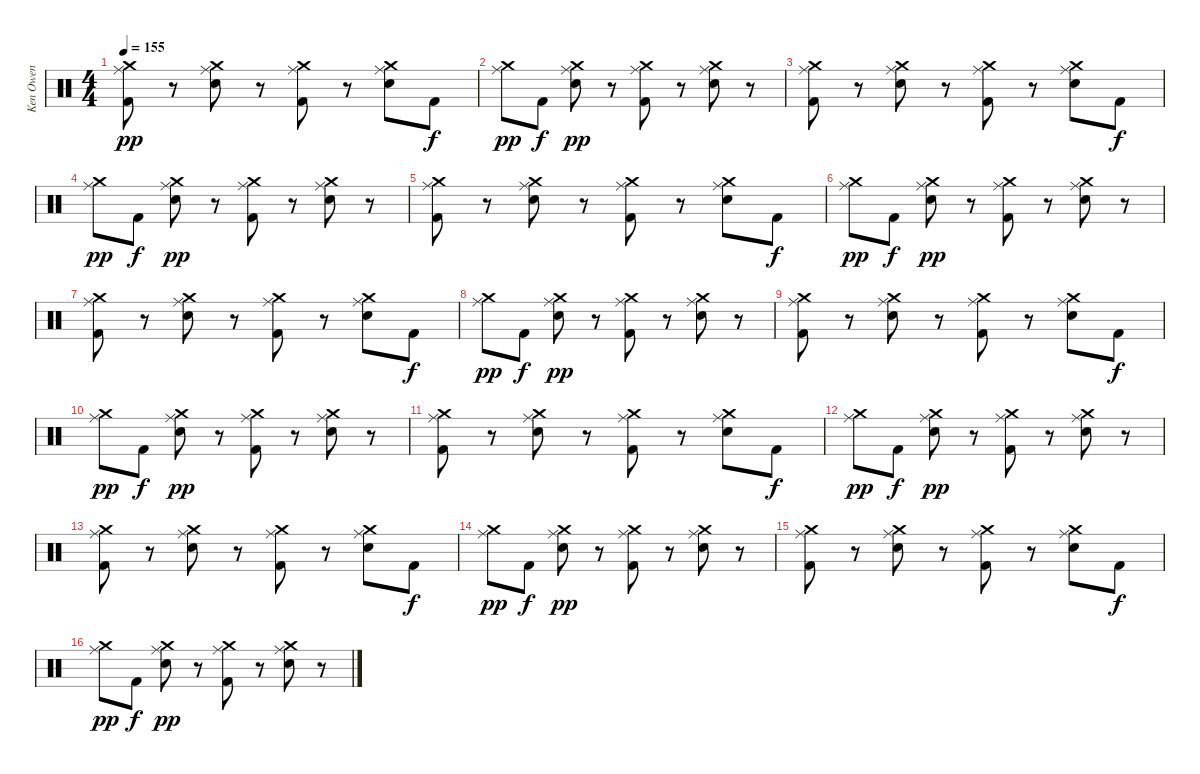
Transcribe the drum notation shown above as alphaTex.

\track ("Ken Owen" "Ken Owen") {instrument percussion}
\staff {score}
\articulation defaults
\ts (4 4)
\tempo 155
\clef neutral
\ks c
("Crash medium (hit)" "Ride (middle)" "Kick (hit) 2").8{dy pp} r.8 ("Crash medium (hit)" "Ride (middle)" "Electric Snare (hit)").8 r.8 ("Crash medium (hit)" "Ride (middle)" "Kick (hit) 2").8 r.8 ("Crash medium (hit)" "Ride (middle)" "Electric Snare (hit)").8 "Kick (hit) 2".8{dy f} |
("Crash medium (hit)" "Ride (middle)").8{dy pp} "Kick (hit) 2".8{dy f} ("Crash medium (hit)" "Ride (middle)" "Electric Snare (hit)").8{dy pp} r.8 ("Crash medium (hit)" "Ride (middle)" "Kick (hit) 2").8 r.8 ("Crash medium (hit)" "Ride (middle)" "Electric Snare (hit)").8 r.8 |
("Crash medium (hit)" "Ride (middle)" "Kick (hit) 2").8 r.8 ("Crash medium (hit)" "Ride (middle)" "Electric Snare (hit)").8 r.8 ("Crash medium (hit)" "Ride (middle)" "Kick (hit) 2").8 r.8 ("Crash medium (hit)" "Ride (middle)" "Electric Snare (hit)").8 "Kick (hit) 2".8{dy f} |
("Crash medium (hit)" "Ride (middle)").8{dy pp} "Kick (hit) 2".8{dy f} ("Crash medium (hit)" "Ride (middle)" "Electric Snare (hit)").8{dy pp} r.8 ("Crash medium (hit)" "Ride (middle)" "Kick (hit) 2").8 r.8 ("Crash medium (hit)" "Ride (middle)" "Electric Snare (hit)").8 r.8 |
("Crash medium (hit)" "Ride (middle)" "Kick (hit) 2").8 r.8 ("Crash medium (hit)" "Ride (middle)" "Electric Snare (hit)").8 r.8 ("Crash medium (hit)" "Ride (middle)" "Kick (hit) 2").8 r.8 ("Crash medium (hit)" "Ride (middle)" "Electric Snare (hit)").8 "Kick (hit) 2".8{dy f} |
("Crash medium (hit)" "Ride (middle)").8{dy pp} "Kick (hit) 2".8{dy f} ("Crash medium (hit)" "Ride (middle)" "Electric Snare (hit)").8{dy pp} r.8 ("Crash medium (hit)" "Ride (middle)" "Kick (hit) 2").8 r.8 ("Crash medium (hit)" "Ride (middle)" "Electric Snare (hit)").8 r.8 |
("Crash medium (hit)" "Ride (middle)" "Kick (hit) 2").8 r.8 ("Crash medium (hit)" "Ride (middle)" "Electric Snare (hit)").8 r.8 ("Crash medium (hit)" "Ride (middle)" "Kick (hit) 2").8 r.8 ("Crash medium (hit)" "Ride (middle)" "Electric Snare (hit)").8 "Kick (hit) 2".8{dy f} |
("Crash medium (hit)" "Ride (middle)").8{dy pp} "Kick (hit) 2".8{dy f} ("Crash medium (hit)" "Ride (middle)" "Electric Snare (hit)").8{dy pp} r.8 ("Crash medium (hit)" "Ride (middle)" "Kick (hit) 2").8 r.8 ("Crash medium (hit)" "Ride (middle)" "Electric Snare (hit)").8 r.8 |
("Crash medium (hit)" "Ride (middle)" "Kick (hit) 2").8 r.8 ("Crash medium (hit)" "Ride (middle)" "Electric Snare (hit)").8 r.8 ("Crash medium (hit)" "Ride (middle)" "Kick (hit) 2").8 r.8 ("Crash medium (hit)" "Ride (middle)" "Electric Snare (hit)").8 "Kick (hit) 2".8{dy f} |
("Crash medium (hit)" "Ride (middle)").8{dy pp} "Kick (hit) 2".8{dy f} ("Crash medium (hit)" "Ride (middle)" "Electric Snare (hit)").8{dy pp} r.8 ("Crash medium (hit)" "Ride (middle)" "Kick (hit) 2").8 r.8 ("Crash medium (hit)" "Ride (middle)" "Electric Snare (hit)").8 r.8 |
("Crash medium (hit)" "Ride (middle)" "Kick (hit) 2").8 r.8 ("Crash medium (hit)" "Ride (middle)" "Electric Snare (hit)").8 r.8 ("Crash medium (hit)" "Ride (middle)" "Kick (hit) 2").8 r.8 ("Crash medium (hit)" "Ride (middle)" "Electric Snare (hit)").8 "Kick (hit) 2".8{dy f} |
("Crash medium (hit)" "Ride (middle)").8{dy pp} "Kick (hit) 2".8{dy f} ("Crash medium (hit)" "Ride (middle)" "Electric Snare (hit)").8{dy pp} r.8 ("Crash medium (hit)" "Ride (middle)" "Kick (hit) 2").8 r.8 ("Crash medium (hit)" "Ride (middle)" "Electric Snare (hit)").8 r.8 |
("Crash medium (hit)" "Ride (middle)" "Kick (hit) 2").8 r.8 ("Crash medium (hit)" "Ride (middle)" "Electric Snare (hit)").8 r.8 ("Crash medium (hit)" "Ride (middle)" "Kick (hit) 2").8 r.8 ("Crash medium (hit)" "Ride (middle)" "Electric Snare (hit)").8 "Kick (hit) 2".8{dy f} |
("Crash medium (hit)" "Ride (middle)").8{dy pp} "Kick (hit) 2".8{dy f} ("Crash medium (hit)" "Ride (middle)" "Electric Snare (hit)").8{dy pp} r.8 ("Crash medium (hit)" "Ride (middle)" "Kick (hit) 2").8 r.8 ("Crash medium (hit)" "Ride (middle)" "Electric Snare (hit)").8 r.8 |
("Crash medium (hit)" "Ride (middle)" "Kick (hit) 2").8 r.8 ("Crash medium (hit)" "Ride (middle)" "Electric Snare (hit)").8 r.8 ("Crash medium (hit)" "Ride (middle)" "Kick (hit) 2").8 r.8 ("Crash medium (hit)" "Ride (middle)" "Electric Snare (hit)").8 "Kick (hit) 2".8{dy f} |
("Crash medium (hit)" "Ride (middle)").8{dy pp} "Kick (hit) 2".8{dy f} ("Crash medium (hit)" "Ride (middle)" "Electric Snare (hit)").8{dy pp} r.8 ("Crash medium (hit)" "Ride (middle)" "Kick (hit) 2").8 r.8 ("Crash medium (hit)" "Ride (middle)" "Electric Snare (hit)").8 r.8
